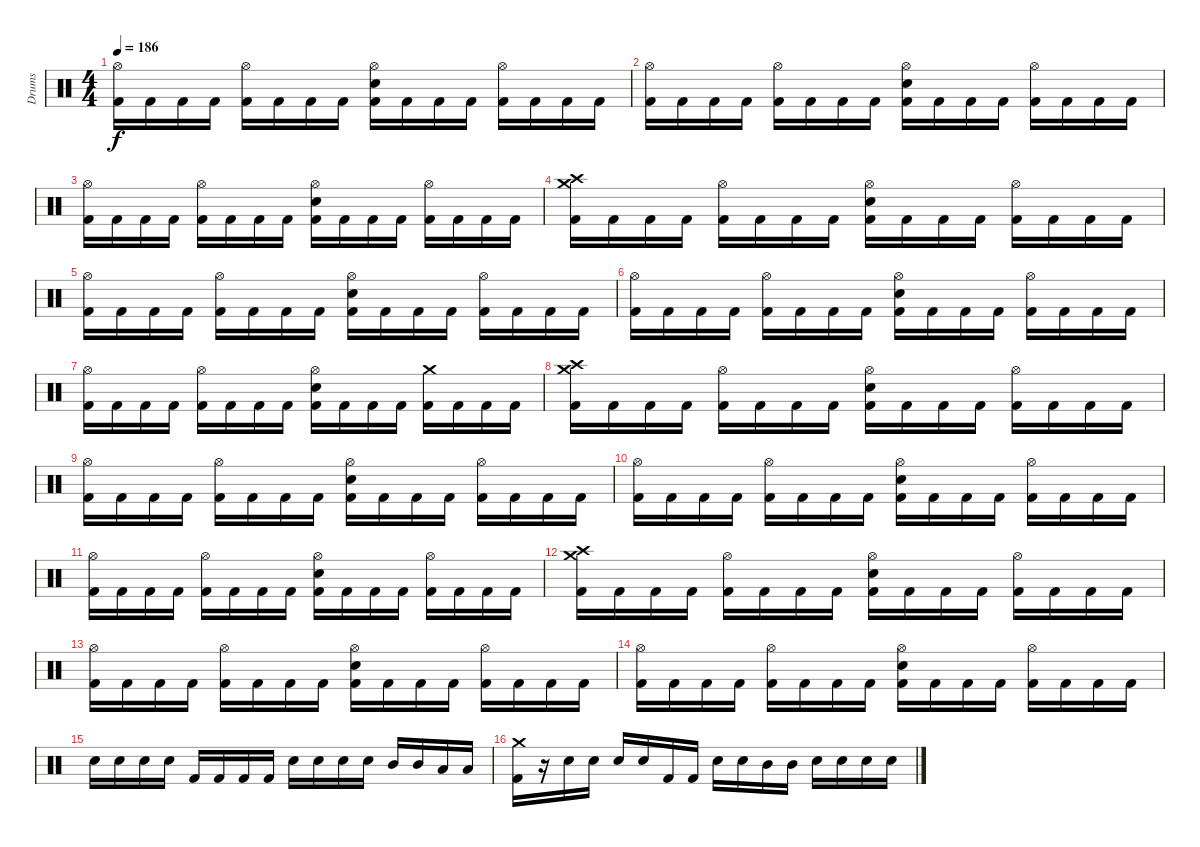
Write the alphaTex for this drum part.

\track ("Drums" "Drums") {instrument percussion}
\staff {score}
\articulation defaults
\ts (4 4)
\tempo 186
\clef neutral
\ks c
("Hi-Hat (open)" "Kick (hit) 2").16{dy f} "Kick (hit) 2".16 "Kick (hit) 2".16 "Kick (hit) 2".16 ("Hi-Hat (open)" "Kick (hit) 2").16 "Kick (hit) 2".16 "Kick (hit) 2".16 "Kick (hit) 2".16 ("Hi-Hat (open)" "Snare (hit) 2" "Kick (hit) 2").16 "Kick (hit) 2".16 "Kick (hit) 2".16 "Kick (hit) 2".16 ("Hi-Hat (open)" "Kick (hit) 2").16 "Kick (hit) 2".16 "Kick (hit) 2".16 "Kick (hit) 2".16 |
("Hi-Hat (open)" "Kick (hit) 2").16 "Kick (hit) 2".16 "Kick (hit) 2".16 "Kick (hit) 2".16 ("Hi-Hat (open)" "Kick (hit) 2").16 "Kick (hit) 2".16 "Kick (hit) 2".16 "Kick (hit) 2".16 ("Hi-Hat (open)" "Snare (hit) 2" "Kick (hit) 2").16 "Kick (hit) 2".16 "Kick (hit) 2".16 "Kick (hit) 2".16 ("Hi-Hat (open)" "Kick (hit) 2").16 "Kick (hit) 2".16 "Kick (hit) 2".16 "Kick (hit) 2".16 |
("Hi-Hat (open)" "Kick (hit) 2").16 "Kick (hit) 2".16 "Kick (hit) 2".16 "Kick (hit) 2".16 ("Hi-Hat (open)" "Kick (hit) 2").16 "Kick (hit) 2".16 "Kick (hit) 2".16 "Kick (hit) 2".16 ("Hi-Hat (open)" "Snare (hit) 2" "Kick (hit) 2").16 "Kick (hit) 2".16 "Kick (hit) 2".16 "Kick (hit) 2".16 ("Hi-Hat (open)" "Kick (hit) 2").16 "Kick (hit) 2".16 "Kick (hit) 2".16 "Kick (hit) 2".16 |
("Crash high (hit)" "Crash medium (hit)" "Kick (hit) 2").16 "Kick (hit) 2".16 "Kick (hit) 2".16 "Kick (hit) 2".16 ("Hi-Hat (open)" "Kick (hit) 2").16 "Kick (hit) 2".16 "Kick (hit) 2".16 "Kick (hit) 2".16 ("Hi-Hat (open)" "Snare (hit) 2" "Kick (hit) 2").16 "Kick (hit) 2".16 "Kick (hit) 2".16 "Kick (hit) 2".16 ("Hi-Hat (open)" "Kick (hit) 2").16 "Kick (hit) 2".16 "Kick (hit) 2".16 "Kick (hit) 2".16 |
("Hi-Hat (open)" "Kick (hit) 2").16 "Kick (hit) 2".16 "Kick (hit) 2".16 "Kick (hit) 2".16 ("Hi-Hat (open)" "Kick (hit) 2").16 "Kick (hit) 2".16 "Kick (hit) 2".16 "Kick (hit) 2".16 ("Hi-Hat (open)" "Snare (hit) 2" "Kick (hit) 2").16 "Kick (hit) 2".16 "Kick (hit) 2".16 "Kick (hit) 2".16 ("Hi-Hat (open)" "Kick (hit) 2").16 "Kick (hit) 2".16 "Kick (hit) 2".16 "Kick (hit) 2".16 |
("Hi-Hat (open)" "Kick (hit) 2").16 "Kick (hit) 2".16 "Kick (hit) 2".16 "Kick (hit) 2".16 ("Hi-Hat (open)" "Kick (hit) 2").16 "Kick (hit) 2".16 "Kick (hit) 2".16 "Kick (hit) 2".16 ("Hi-Hat (open)" "Snare (hit) 2" "Kick (hit) 2").16 "Kick (hit) 2".16 "Kick (hit) 2".16 "Kick (hit) 2".16 ("Hi-Hat (open)" "Kick (hit) 2").16 "Kick (hit) 2".16 "Kick (hit) 2".16 "Kick (hit) 2".16 |
("Hi-Hat (open)" "Kick (hit) 2").16 "Kick (hit) 2".16 "Kick (hit) 2".16 "Kick (hit) 2".16 ("Hi-Hat (open)" "Kick (hit) 2").16 "Kick (hit) 2".16 "Kick (hit) 2".16 "Kick (hit) 2".16 ("Hi-Hat (open)" "Snare (hit) 2" "Kick (hit) 2").16 "Kick (hit) 2".16 "Kick (hit) 2".16 "Kick (hit) 2".16 ("Crash medium (hit)" "Kick (hit) 2").16 "Kick (hit) 2".16 "Kick (hit) 2".16 "Kick (hit) 2".16 |
("Crash high (hit)" "Crash medium (hit)" "Kick (hit) 2").16 "Kick (hit) 2".16 "Kick (hit) 2".16 "Kick (hit) 2".16 ("Hi-Hat (open)" "Kick (hit) 2").16 "Kick (hit) 2".16 "Kick (hit) 2".16 "Kick (hit) 2".16 ("Hi-Hat (open)" "Snare (hit) 2" "Kick (hit) 2").16 "Kick (hit) 2".16 "Kick (hit) 2".16 "Kick (hit) 2".16 ("Hi-Hat (open)" "Kick (hit) 2").16 "Kick (hit) 2".16 "Kick (hit) 2".16 "Kick (hit) 2".16 |
("Hi-Hat (open)" "Kick (hit) 2").16 "Kick (hit) 2".16 "Kick (hit) 2".16 "Kick (hit) 2".16 ("Hi-Hat (open)" "Kick (hit) 2").16 "Kick (hit) 2".16 "Kick (hit) 2".16 "Kick (hit) 2".16 ("Hi-Hat (open)" "Snare (hit) 2" "Kick (hit) 2").16 "Kick (hit) 2".16 "Kick (hit) 2".16 "Kick (hit) 2".16 ("Hi-Hat (open)" "Kick (hit) 2").16 "Kick (hit) 2".16 "Kick (hit) 2".16 "Kick (hit) 2".16 |
("Hi-Hat (open)" "Kick (hit) 2").16 "Kick (hit) 2".16 "Kick (hit) 2".16 "Kick (hit) 2".16 ("Hi-Hat (open)" "Kick (hit) 2").16 "Kick (hit) 2".16 "Kick (hit) 2".16 "Kick (hit) 2".16 ("Hi-Hat (open)" "Snare (hit) 2" "Kick (hit) 2").16 "Kick (hit) 2".16 "Kick (hit) 2".16 "Kick (hit) 2".16 ("Hi-Hat (open)" "Kick (hit) 2").16 "Kick (hit) 2".16 "Kick (hit) 2".16 "Kick (hit) 2".16 |
("Hi-Hat (open)" "Kick (hit) 2").16 "Kick (hit) 2".16 "Kick (hit) 2".16 "Kick (hit) 2".16 ("Hi-Hat (open)" "Kick (hit) 2").16 "Kick (hit) 2".16 "Kick (hit) 2".16 "Kick (hit) 2".16 ("Hi-Hat (open)" "Snare (hit) 2" "Kick (hit) 2").16 "Kick (hit) 2".16 "Kick (hit) 2".16 "Kick (hit) 2".16 ("Hi-Hat (open)" "Kick (hit) 2").16 "Kick (hit) 2".16 "Kick (hit) 2".16 "Kick (hit) 2".16 |
("Crash high (hit)" "Crash medium (hit)" "Kick (hit) 2").16 "Kick (hit) 2".16 "Kick (hit) 2".16 "Kick (hit) 2".16 ("Hi-Hat (open)" "Kick (hit) 2").16 "Kick (hit) 2".16 "Kick (hit) 2".16 "Kick (hit) 2".16 ("Hi-Hat (open)" "Snare (hit) 2" "Kick (hit) 2").16 "Kick (hit) 2".16 "Kick (hit) 2".16 "Kick (hit) 2".16 ("Hi-Hat (open)" "Kick (hit) 2").16 "Kick (hit) 2".16 "Kick (hit) 2".16 "Kick (hit) 2".16 |
("Hi-Hat (open)" "Kick (hit) 2").16 "Kick (hit) 2".16 "Kick (hit) 2".16 "Kick (hit) 2".16 ("Hi-Hat (open)" "Kick (hit) 2").16 "Kick (hit) 2".16 "Kick (hit) 2".16 "Kick (hit) 2".16 ("Hi-Hat (open)" "Snare (hit) 2" "Kick (hit) 2").16 "Kick (hit) 2".16 "Kick (hit) 2".16 "Kick (hit) 2".16 ("Hi-Hat (open)" "Kick (hit) 2").16 "Kick (hit) 2".16 "Kick (hit) 2".16 "Kick (hit) 2".16 |
("Hi-Hat (open)" "Kick (hit) 2").16 "Kick (hit) 2".16 "Kick (hit) 2".16 "Kick (hit) 2".16 ("Hi-Hat (open)" "Kick (hit) 2").16 "Kick (hit) 2".16 "Kick (hit) 2".16 "Kick (hit) 2".16 ("Hi-Hat (open)" "Snare (hit) 2" "Kick (hit) 2").16 "Kick (hit) 2".16 "Kick (hit) 2".16 "Kick (hit) 2".16 ("Hi-Hat (open)" "Kick (hit) 2").16 "Kick (hit) 2".16 "Kick (hit) 2".16 "Kick (hit) 2".16 |
"Snare (hit) 2".16 "Snare (hit) 2".16 "Snare (hit) 2".16 "Snare (hit) 2".16 "Kick (hit) 2".16 "Kick (hit) 2".16 "Kick (hit) 2".16 "Kick (hit) 2".16 "Snare (hit) 2".16 "Snare (hit) 2".16 "Snare (hit) 2".16 "Snare (hit) 2".16 "Mid Tom (hit)".16 "Mid Tom (hit)".16 "Low Tom (hit)".16 "Low Tom (hit)".16 |
("Crash medium (hit)" "Kick (hit) 2").16 r.16 "Snare (hit) 2".16 "Snare (hit) 2".16 "Snare (hit) 2".16 "Snare (hit) 2".16 "Kick (hit) 2".16 "Kick (hit) 2".16 "Snare (hit) 2".16 "Snare (hit) 2".16 "Mid Tom (hit)".16 "Mid Tom (hit)".16 "Snare (hit) 2".16 "Snare (hit) 2".16 "Snare (hit) 2".16 "Snare (hit) 2".16
